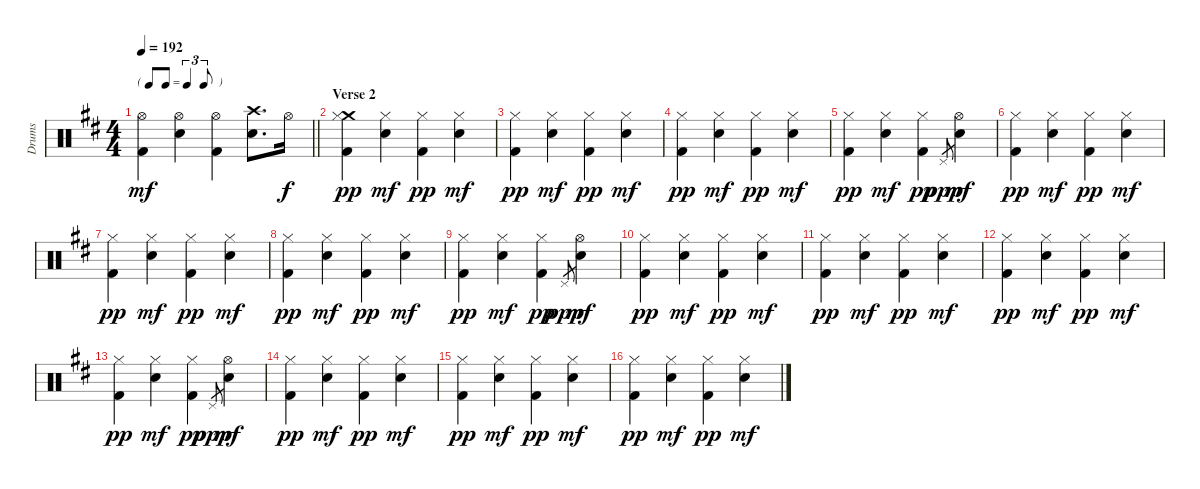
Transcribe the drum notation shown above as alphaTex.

\track ("Drums" "Drums") {instrument percussion}
\staff {score}
\articulation defaults
\ts (4 4)
\tf triplet8th
\tempo 192
\clef neutral
\barLineRight lightlight
\ks bminor
("Hi-Hat (open)" "Kick (hit) 2").4{dy mf} ("Hi-Hat (open)" "Snare (hit) 2").4 ("Hi-Hat (open)" "Kick (hit) 2").4 ("Crash high (hit)" "Snare (hit) 2").8{d} "Hi-Hat (open)".16{dy f} |
\section ("" "Verse 2")
("Crash medium (hit)" "Hi-Hat (closed)" "Kick (hit) 2").4{dy pp} ("Hi-Hat (closed)" "Snare (hit) 2").4{dy mf} ("Hi-Hat (closed)" "Kick (hit) 2").4{dy pp} ("Hi-Hat (closed)" "Snare (hit) 2").4{dy mf} |
("Hi-Hat (closed)" "Kick (hit) 2").4{dy pp} ("Hi-Hat (closed)" "Snare (hit) 2").4{dy mf} ("Hi-Hat (closed)" "Kick (hit) 2").4{dy pp} ("Hi-Hat (closed)" "Snare (hit) 2").4{dy mf} |
("Hi-Hat (closed)" "Kick (hit) 2").4{dy pp} ("Hi-Hat (closed)" "Snare (hit) 2").4{dy mf} ("Hi-Hat (closed)" "Kick (hit) 2").4{dy pp} ("Hi-Hat (closed)" "Snare (hit) 2").4{dy mf} |
("Hi-Hat (closed)" "Kick (hit) 2").4{dy pp} ("Hi-Hat (closed)" "Snare (hit) 2").4{dy mf} ("Hi-Hat (closed)" "Kick (hit) 2").4{dy pp} "Pedal Hi-Hat (hit)".8{gr dy ppp} ("Hi-Hat (open)" "Snare (hit) 2").4{dy mf} |
("Hi-Hat (closed)" "Kick (hit) 2").4{dy pp} ("Hi-Hat (closed)" "Snare (hit) 2").4{dy mf} ("Hi-Hat (closed)" "Kick (hit) 2").4{dy pp} ("Hi-Hat (closed)" "Snare (hit) 2").4{dy mf} |
("Hi-Hat (closed)" "Kick (hit) 2").4{dy pp} ("Hi-Hat (closed)" "Snare (hit) 2").4{dy mf} ("Hi-Hat (closed)" "Kick (hit) 2").4{dy pp} ("Hi-Hat (closed)" "Snare (hit) 2").4{dy mf} |
("Hi-Hat (closed)" "Kick (hit) 2").4{dy pp} ("Hi-Hat (closed)" "Snare (hit) 2").4{dy mf} ("Hi-Hat (closed)" "Kick (hit) 2").4{dy pp} ("Hi-Hat (closed)" "Snare (hit) 2").4{dy mf} |
("Hi-Hat (closed)" "Kick (hit) 2").4{dy pp} ("Hi-Hat (closed)" "Snare (hit) 2").4{dy mf} ("Hi-Hat (closed)" "Kick (hit) 2").4{dy pp} "Pedal Hi-Hat (hit)".8{gr dy ppp} ("Hi-Hat (open)" "Snare (hit) 2").4{dy mf} |
("Hi-Hat (closed)" "Kick (hit) 2").4{dy pp} ("Hi-Hat (closed)" "Snare (hit) 2").4{dy mf} ("Hi-Hat (closed)" "Kick (hit) 2").4{dy pp} ("Hi-Hat (closed)" "Snare (hit) 2").4{dy mf} |
("Hi-Hat (closed)" "Kick (hit) 2").4{dy pp} ("Hi-Hat (closed)" "Snare (hit) 2").4{dy mf} ("Hi-Hat (closed)" "Kick (hit) 2").4{dy pp} ("Hi-Hat (closed)" "Snare (hit) 2").4{dy mf} |
("Hi-Hat (closed)" "Kick (hit) 2").4{dy pp} ("Hi-Hat (closed)" "Snare (hit) 2").4{dy mf} ("Hi-Hat (closed)" "Kick (hit) 2").4{dy pp} ("Hi-Hat (closed)" "Snare (hit) 2").4{dy mf} |
("Hi-Hat (closed)" "Kick (hit) 2").4{dy pp} ("Hi-Hat (closed)" "Snare (hit) 2").4{dy mf} ("Hi-Hat (closed)" "Kick (hit) 2").4{dy pp} "Pedal Hi-Hat (hit)".8{gr dy ppp} ("Hi-Hat (open)" "Snare (hit) 2").4{dy mf} |
("Hi-Hat (closed)" "Kick (hit) 2").4{dy pp} ("Hi-Hat (closed)" "Snare (hit) 2").4{dy mf} ("Hi-Hat (closed)" "Kick (hit) 2").4{dy pp} ("Hi-Hat (closed)" "Snare (hit) 2").4{dy mf} |
("Hi-Hat (closed)" "Kick (hit) 2").4{dy pp} ("Hi-Hat (closed)" "Snare (hit) 2").4{dy mf} ("Hi-Hat (closed)" "Kick (hit) 2").4{dy pp} ("Hi-Hat (closed)" "Snare (hit) 2").4{dy mf} |
("Hi-Hat (closed)" "Kick (hit) 2").4{dy pp} ("Hi-Hat (closed)" "Snare (hit) 2").4{dy mf} ("Hi-Hat (closed)" "Kick (hit) 2").4{dy pp} ("Hi-Hat (closed)" "Snare (hit) 2").4{dy mf}
